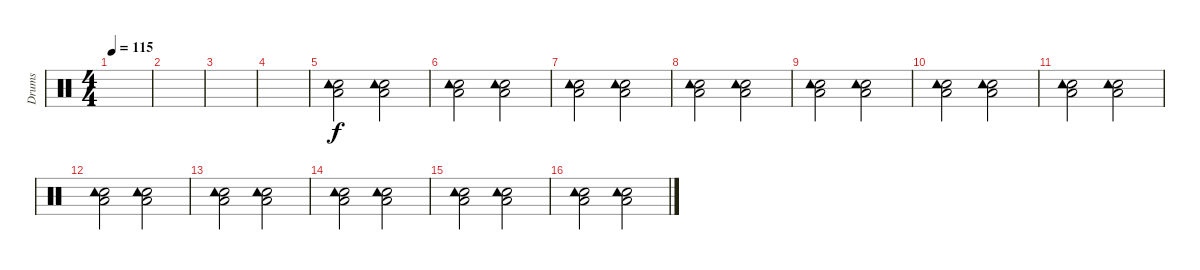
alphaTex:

\track ("Drums" "Drums") {instrument percussion}
\staff {score}
\articulation defaults
\ts (4 4)
\tempo 115
\clef neutral
\ks c
|
|
|
|
("Hand Clap (hit)" "Low Floor Tom (hit)" "Tambourine (hit)").2 ("Hand Clap (hit)" "Low Floor Tom (hit)" "Tambourine (hit)").2 |
("Hand Clap (hit)" "Low Floor Tom (hit)" "Tambourine (hit)").2 ("Hand Clap (hit)" "Low Floor Tom (hit)" "Tambourine (hit)").2 |
("Hand Clap (hit)" "Low Floor Tom (hit)" "Tambourine (hit)").2 ("Hand Clap (hit)" "Low Floor Tom (hit)" "Tambourine (hit)").2 |
("Hand Clap (hit)" "Low Floor Tom (hit)" "Tambourine (hit)").2 ("Hand Clap (hit)" "Low Floor Tom (hit)" "Tambourine (hit)").2 |
("Hand Clap (hit)" "Low Floor Tom (hit)" "Tambourine (hit)").2 ("Hand Clap (hit)" "Low Floor Tom (hit)" "Tambourine (hit)").2 |
("Hand Clap (hit)" "Low Floor Tom (hit)" "Tambourine (hit)").2 ("Hand Clap (hit)" "Low Floor Tom (hit)" "Tambourine (hit)").2 |
("Hand Clap (hit)" "Low Floor Tom (hit)" "Tambourine (hit)").2 ("Hand Clap (hit)" "Low Floor Tom (hit)" "Tambourine (hit)").2 |
("Hand Clap (hit)" "Low Floor Tom (hit)" "Tambourine (hit)").2 ("Hand Clap (hit)" "Low Floor Tom (hit)" "Tambourine (hit)").2 |
("Hand Clap (hit)" "Low Floor Tom (hit)" "Tambourine (hit)").2 ("Hand Clap (hit)" "Low Floor Tom (hit)" "Tambourine (hit)").2 |
("Hand Clap (hit)" "Low Floor Tom (hit)" "Tambourine (hit)").2 ("Hand Clap (hit)" "Low Floor Tom (hit)" "Tambourine (hit)").2 |
("Hand Clap (hit)" "Low Floor Tom (hit)" "Tambourine (hit)").2 ("Hand Clap (hit)" "Low Floor Tom (hit)" "Tambourine (hit)").2 |
("Hand Clap (hit)" "Low Floor Tom (hit)" "Tambourine (hit)").2 ("Hand Clap (hit)" "Low Floor Tom (hit)" "Tambourine (hit)").2
